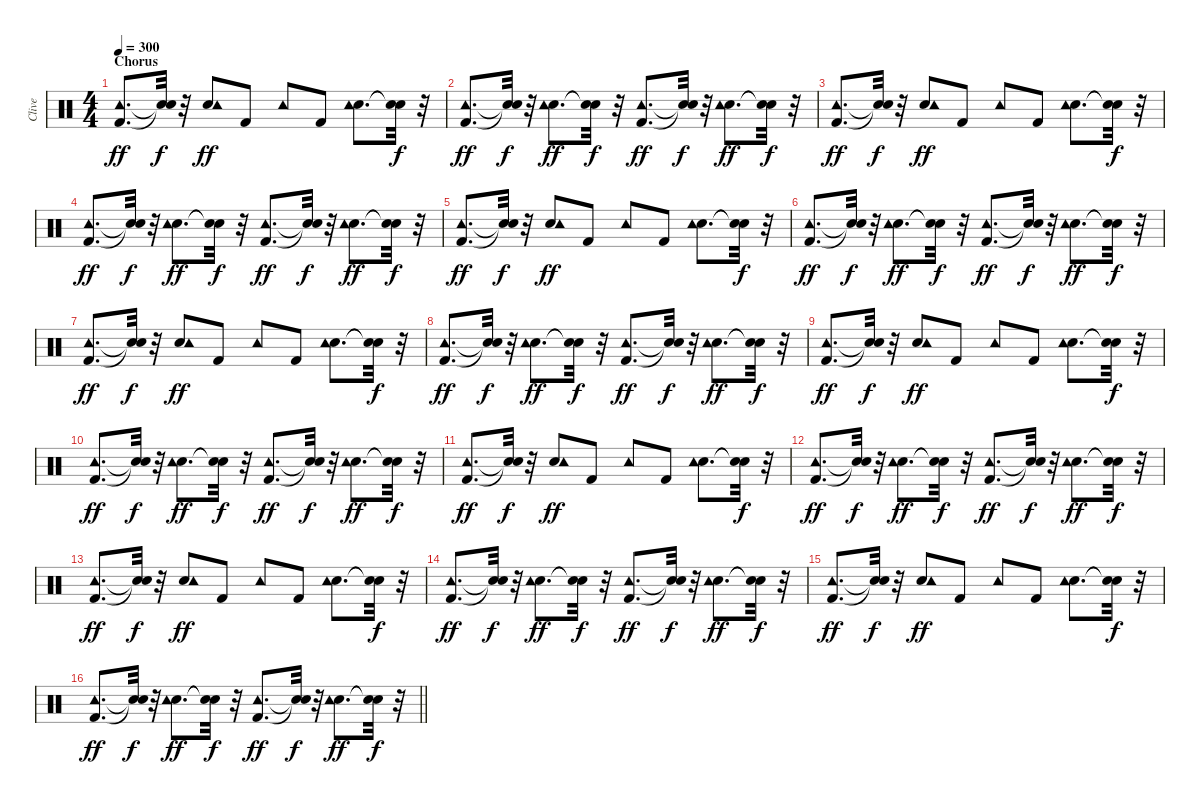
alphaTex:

\track ("Clive" "Clive") {instrument percussion}
\staff {score}
\articulation defaults
\ts (4 4)
\section ("" "Chorus")
\tempo 300
\clef neutral
\ks c
("Kick (hit) 2" "Tambourine (hit)").8{d dy ff} ("Snare (hit)"{t} "Snare (hit)"{t}).32{dy f} r.32 ("Snare (hit) 2" "Tambourine (hit)").8{dy ff} "Kick (hit) 2".8 "Tambourine (hit)".8 "Kick (hit) 2".8 ("Snare (hit) 2" "Tambourine (hit)").8{d} ("Snare (hit)"{t} "Snare (hit)"{t}).32{dy f} r.32 |
("Kick (hit) 2" "Tambourine (hit)").8{d dy ff} ("Snare (hit)"{t} "Snare (hit)"{t}).32{dy f} r.32 ("Snare (hit) 2" "Tambourine (hit)").8{d dy ff} ("Snare (hit)"{t} "Snare (hit)"{t}).32{dy f} r.32 ("Kick (hit) 2" "Tambourine (hit)").8{d dy ff} ("Snare (hit)"{t} "Snare (hit)"{t}).32{dy f} r.32 ("Snare (hit) 2" "Tambourine (hit)").8{d dy ff} ("Snare (hit)"{t} "Snare (hit)"{t}).32{dy f} r.32 |
("Kick (hit) 2" "Tambourine (hit)").8{d dy ff} ("Snare (hit)"{t} "Snare (hit)"{t}).32{dy f} r.32 ("Snare (hit) 2" "Tambourine (hit)").8{dy ff} "Kick (hit) 2".8 "Tambourine (hit)".8 "Kick (hit) 2".8 ("Snare (hit) 2" "Tambourine (hit)").8{d} ("Snare (hit)"{t} "Snare (hit)"{t}).32{dy f} r.32 |
("Kick (hit) 2" "Tambourine (hit)").8{d dy ff} ("Snare (hit)"{t} "Snare (hit)"{t}).32{dy f} r.32 ("Snare (hit) 2" "Tambourine (hit)").8{d dy ff} ("Snare (hit)"{t} "Snare (hit)"{t}).32{dy f} r.32 ("Kick (hit) 2" "Tambourine (hit)").8{d dy ff} ("Snare (hit)"{t} "Snare (hit)"{t}).32{dy f} r.32 ("Snare (hit) 2" "Tambourine (hit)").8{d dy ff} ("Snare (hit)"{t} "Snare (hit)"{t}).32{dy f} r.32 |
("Kick (hit) 2" "Tambourine (hit)").8{d dy ff} ("Snare (hit)"{t} "Snare (hit)"{t}).32{dy f} r.32 ("Snare (hit) 2" "Tambourine (hit)").8{dy ff} "Kick (hit) 2".8 "Tambourine (hit)".8 "Kick (hit) 2".8 ("Snare (hit) 2" "Tambourine (hit)").8{d} ("Snare (hit)"{t} "Snare (hit)"{t}).32{dy f} r.32 |
("Kick (hit) 2" "Tambourine (hit)").8{d dy ff} ("Snare (hit)"{t} "Snare (hit)"{t}).32{dy f} r.32 ("Snare (hit) 2" "Tambourine (hit)").8{d dy ff} ("Snare (hit)"{t} "Snare (hit)"{t}).32{dy f} r.32 ("Kick (hit) 2" "Tambourine (hit)").8{d dy ff} ("Snare (hit)"{t} "Snare (hit)"{t}).32{dy f} r.32 ("Snare (hit) 2" "Tambourine (hit)").8{d dy ff} ("Snare (hit)"{t} "Snare (hit)"{t}).32{dy f} r.32 |
("Kick (hit) 2" "Tambourine (hit)").8{d dy ff} ("Snare (hit)"{t} "Snare (hit)"{t}).32{dy f} r.32 ("Snare (hit) 2" "Tambourine (hit)").8{dy ff} "Kick (hit) 2".8 "Tambourine (hit)".8 "Kick (hit) 2".8 ("Snare (hit) 2" "Tambourine (hit)").8{d} ("Snare (hit)"{t} "Snare (hit)"{t}).32{dy f} r.32 |
("Kick (hit) 2" "Tambourine (hit)").8{d dy ff} ("Snare (hit)"{t} "Snare (hit)"{t}).32{dy f} r.32 ("Snare (hit) 2" "Tambourine (hit)").8{d dy ff} ("Snare (hit)"{t} "Snare (hit)"{t}).32{dy f} r.32 ("Kick (hit) 2" "Tambourine (hit)").8{d dy ff} ("Snare (hit)"{t} "Snare (hit)"{t}).32{dy f} r.32 ("Snare (hit) 2" "Tambourine (hit)").8{d dy ff} ("Snare (hit)"{t} "Snare (hit)"{t}).32{dy f} r.32 |
("Kick (hit) 2" "Tambourine (hit)").8{d dy ff} ("Snare (hit)"{t} "Snare (hit)"{t}).32{dy f} r.32 ("Snare (hit) 2" "Tambourine (hit)").8{dy ff} "Kick (hit) 2".8 "Tambourine (hit)".8 "Kick (hit) 2".8 ("Snare (hit) 2" "Tambourine (hit)").8{d} ("Snare (hit)"{t} "Snare (hit)"{t}).32{dy f} r.32 |
("Kick (hit) 2" "Tambourine (hit)").8{d dy ff} ("Snare (hit)"{t} "Snare (hit)"{t}).32{dy f} r.32 ("Snare (hit) 2" "Tambourine (hit)").8{d dy ff} ("Snare (hit)"{t} "Snare (hit)"{t}).32{dy f} r.32 ("Kick (hit) 2" "Tambourine (hit)").8{d dy ff} ("Snare (hit)"{t} "Snare (hit)"{t}).32{dy f} r.32 ("Snare (hit) 2" "Tambourine (hit)").8{d dy ff} ("Snare (hit)"{t} "Snare (hit)"{t}).32{dy f} r.32 |
("Kick (hit) 2" "Tambourine (hit)").8{d dy ff} ("Snare (hit)"{t} "Snare (hit)"{t}).32{dy f} r.32 ("Snare (hit) 2" "Tambourine (hit)").8{dy ff} "Kick (hit) 2".8 "Tambourine (hit)".8 "Kick (hit) 2".8 ("Snare (hit) 2" "Tambourine (hit)").8{d} ("Snare (hit)"{t} "Snare (hit)"{t}).32{dy f} r.32 |
("Kick (hit) 2" "Tambourine (hit)").8{d dy ff} ("Snare (hit)"{t} "Snare (hit)"{t}).32{dy f} r.32 ("Snare (hit) 2" "Tambourine (hit)").8{d dy ff} ("Snare (hit)"{t} "Snare (hit)"{t}).32{dy f} r.32 ("Kick (hit) 2" "Tambourine (hit)").8{d dy ff} ("Snare (hit)"{t} "Snare (hit)"{t}).32{dy f} r.32 ("Snare (hit) 2" "Tambourine (hit)").8{d dy ff} ("Snare (hit)"{t} "Snare (hit)"{t}).32{dy f} r.32 |
("Kick (hit) 2" "Tambourine (hit)").8{d dy ff} ("Snare (hit)"{t} "Snare (hit)"{t}).32{dy f} r.32 ("Snare (hit) 2" "Tambourine (hit)").8{dy ff} "Kick (hit) 2".8 "Tambourine (hit)".8 "Kick (hit) 2".8 ("Snare (hit) 2" "Tambourine (hit)").8{d} ("Snare (hit)"{t} "Snare (hit)"{t}).32{dy f} r.32 |
("Kick (hit) 2" "Tambourine (hit)").8{d dy ff} ("Snare (hit)"{t} "Snare (hit)"{t}).32{dy f} r.32 ("Snare (hit) 2" "Tambourine (hit)").8{d dy ff} ("Snare (hit)"{t} "Snare (hit)"{t}).32{dy f} r.32 ("Kick (hit) 2" "Tambourine (hit)").8{d dy ff} ("Snare (hit)"{t} "Snare (hit)"{t}).32{dy f} r.32 ("Snare (hit) 2" "Tambourine (hit)").8{d dy ff} ("Snare (hit)"{t} "Snare (hit)"{t}).32{dy f} r.32 |
("Kick (hit) 2" "Tambourine (hit)").8{d dy ff} ("Snare (hit)"{t} "Snare (hit)"{t}).32{dy f} r.32 ("Snare (hit) 2" "Tambourine (hit)").8{dy ff} "Kick (hit) 2".8 "Tambourine (hit)".8 "Kick (hit) 2".8 ("Snare (hit) 2" "Tambourine (hit)").8{d} ("Snare (hit)"{t} "Snare (hit)"{t}).32{dy f} r.32 |
\barLineRight lightlight
("Kick (hit) 2" "Tambourine (hit)").8{d dy ff} ("Snare (hit)"{t} "Snare (hit)"{t}).32{dy f} r.32 ("Snare (hit) 2" "Tambourine (hit)").8{d dy ff} ("Snare (hit)"{t} "Snare (hit)"{t}).32{dy f} r.32 ("Kick (hit) 2" "Tambourine (hit)").8{d dy ff} ("Snare (hit)"{t} "Snare (hit)"{t}).32{dy f} r.32 ("Snare (hit) 2" "Tambourine (hit)").8{d dy ff} ("Snare (hit)"{t} "Snare (hit)"{t}).32{dy f} r.32
